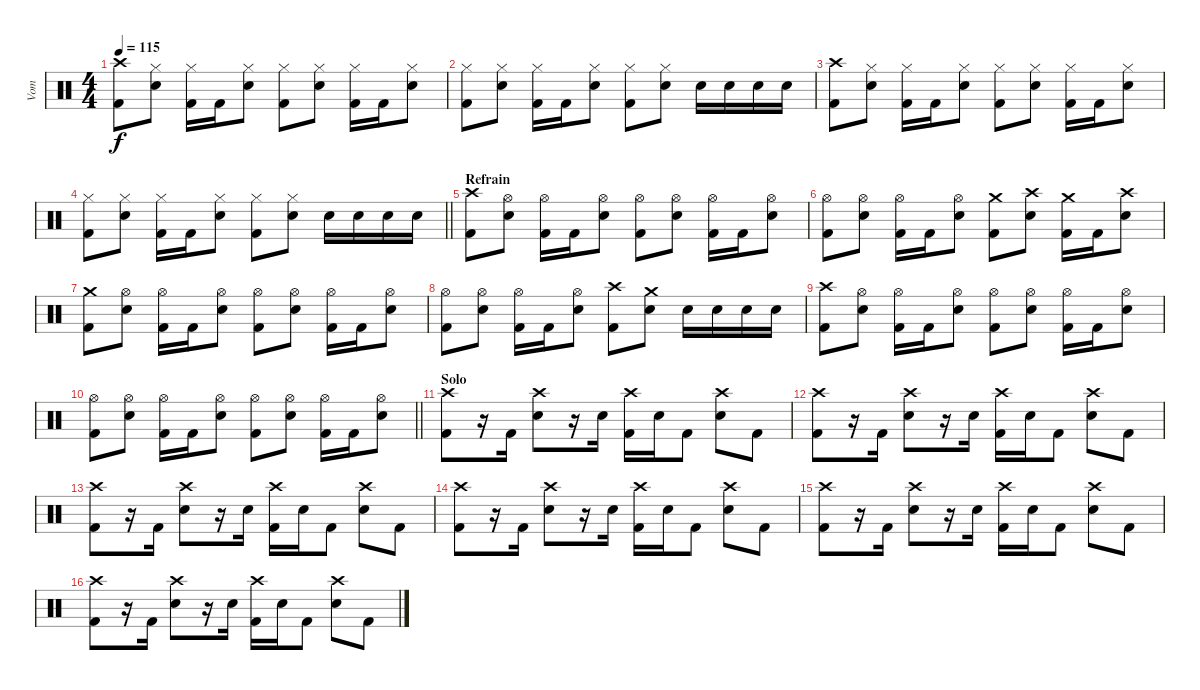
\track ("Vom" "Vom") {instrument percussion}
\staff {score}
\articulation defaults
\ts (4 4)
\tempo 115
\clef neutral
\ks c
("Crash high (hit)" "Kick (hit) 2").8{dy f} ("Hi-Hat (closed)" "Snare (hit) 2").8 ("Hi-Hat (closed)" "Kick (hit) 2").16 "Kick (hit) 2".16 ("Hi-Hat (closed)" "Snare (hit) 2").8 ("Hi-Hat (closed)" "Kick (hit) 2").8 ("Hi-Hat (closed)" "Snare (hit) 2").8 ("Hi-Hat (closed)" "Kick (hit) 2").16 "Kick (hit) 2".16 ("Hi-Hat (closed)" "Snare (hit) 2").8 |
("Hi-Hat (closed)" "Kick (hit) 2").8 ("Hi-Hat (closed)" "Snare (hit) 2").8 ("Hi-Hat (closed)" "Kick (hit) 2").16 "Kick (hit) 2".16 ("Hi-Hat (closed)" "Snare (hit) 2").8 ("Hi-Hat (closed)" "Kick (hit) 2").8 ("Hi-Hat (closed)" "Snare (hit) 2").8 "Snare (hit) 2".16 "Snare (hit) 2".16 "Snare (hit) 2".16 "Snare (hit) 2".16 |
("Crash high (hit)" "Kick (hit) 2").8 ("Hi-Hat (closed)" "Snare (hit) 2").8 ("Hi-Hat (closed)" "Kick (hit) 2").16 "Kick (hit) 2".16 ("Hi-Hat (closed)" "Snare (hit) 2").8 ("Hi-Hat (closed)" "Kick (hit) 2").8 ("Hi-Hat (closed)" "Snare (hit) 2").8 ("Hi-Hat (closed)" "Kick (hit) 2").16 "Kick (hit) 2".16 ("Hi-Hat (closed)" "Snare (hit) 2").8 |
\barLineRight lightlight
("Hi-Hat (closed)" "Kick (hit) 2").8 ("Hi-Hat (closed)" "Snare (hit) 2").8 ("Hi-Hat (closed)" "Kick (hit) 2").16 "Kick (hit) 2".16 ("Hi-Hat (closed)" "Snare (hit) 2").8 ("Hi-Hat (closed)" "Kick (hit) 2").8 ("Hi-Hat (closed)" "Snare (hit) 2").8 "Snare (hit) 2".16 "Snare (hit) 2".16 "Snare (hit) 2".16 "Snare (hit) 2".16 |
\section ("" "Refrain")
("Crash high (hit)" "Kick (hit) 2").8 ("Hi-Hat (open)" "Snare (hit) 2").8 ("Hi-Hat (open)" "Kick (hit) 2").16 "Kick (hit) 2".16 ("Hi-Hat (open)" "Snare (hit) 2").8 ("Hi-Hat (open)" "Kick (hit) 2").8 ("Hi-Hat (open)" "Snare (hit) 2").8 ("Hi-Hat (open)" "Kick (hit) 2").16 "Kick (hit) 2".16 ("Hi-Hat (open)" "Snare (hit) 2").8 |
("Hi-Hat (open)" "Kick (hit) 2").8 ("Hi-Hat (open)" "Snare (hit) 2").8 ("Hi-Hat (open)" "Kick (hit) 2").16 "Kick (hit) 2".16 ("Hi-Hat (open)" "Snare (hit) 2").8 ("Crash medium (hit)" "Kick (hit) 2").8 ("Crash high (hit)" "Snare (hit) 2").8 ("Crash medium (hit)" "Kick (hit) 2").16 "Kick (hit) 2".16 ("Crash high (hit)" "Snare (hit) 2").8 |
("Crash medium (hit)" "Kick (hit) 2").8 ("Hi-Hat (open)" "Snare (hit) 2").8 ("Hi-Hat (open)" "Kick (hit) 2").16 "Kick (hit) 2".16 ("Hi-Hat (open)" "Snare (hit) 2").8 ("Hi-Hat (open)" "Kick (hit) 2").8 ("Hi-Hat (open)" "Snare (hit) 2").8 ("Hi-Hat (open)" "Kick (hit) 2").16 "Kick (hit) 2".16 ("Hi-Hat (open)" "Snare (hit) 2").8 |
("Hi-Hat (open)" "Kick (hit) 2").8 ("Hi-Hat (open)" "Snare (hit) 2").8 ("Hi-Hat (open)" "Kick (hit) 2").16 "Kick (hit) 2".16 ("Hi-Hat (open)" "Snare (hit) 2").8 ("Crash high (hit)" "Kick (hit) 2").8 ("Crash medium (hit)" "Snare (hit) 2").8 "Snare (hit) 2".16 "Snare (hit) 2".16 "Snare (hit) 2".16 "Snare (hit) 2".16 |
("Crash high (hit)" "Kick (hit) 2").8 ("Hi-Hat (open)" "Snare (hit) 2").8 ("Hi-Hat (open)" "Kick (hit) 2").16 "Kick (hit) 2".16 ("Hi-Hat (open)" "Snare (hit) 2").8 ("Hi-Hat (open)" "Kick (hit) 2").8 ("Hi-Hat (open)" "Snare (hit) 2").8 ("Hi-Hat (open)" "Kick (hit) 2").16 "Kick (hit) 2".16 ("Hi-Hat (open)" "Snare (hit) 2").8 |
\barLineRight lightlight
("Hi-Hat (open)" "Kick (hit) 2").8 ("Hi-Hat (open)" "Snare (hit) 2").8 ("Hi-Hat (open)" "Kick (hit) 2").16 "Kick (hit) 2".16 ("Hi-Hat (open)" "Snare (hit) 2").8 ("Hi-Hat (open)" "Kick (hit) 2").8 ("Hi-Hat (open)" "Snare (hit) 2").8 ("Hi-Hat (open)" "Kick (hit) 2").16 "Kick (hit) 2".16 ("Hi-Hat (open)" "Snare (hit) 2").8 |
\section ("" "Solo")
("Crash high (hit)" "Kick (hit) 2").8 r.16 "Kick (hit) 2".16 ("Crash high (hit)" "Snare (hit) 2").8 r.16 "Snare (hit) 2".16 ("Crash high (hit)" "Kick (hit) 2").16 "Snare (hit) 2".16 "Kick (hit) 2".8 ("Crash high (hit)" "Snare (hit) 2").8 "Kick (hit) 2".8 |
("Crash high (hit)" "Kick (hit) 2").8 r.16 "Kick (hit) 2".16 ("Crash high (hit)" "Snare (hit) 2").8 r.16 "Snare (hit) 2".16 ("Crash high (hit)" "Kick (hit) 2").16 "Snare (hit) 2".16 "Kick (hit) 2".8 ("Crash high (hit)" "Snare (hit) 2").8 "Kick (hit) 2".8 |
("Crash high (hit)" "Kick (hit) 2").8 r.16 "Kick (hit) 2".16 ("Crash high (hit)" "Snare (hit) 2").8 r.16 "Snare (hit) 2".16 ("Crash high (hit)" "Kick (hit) 2").16 "Snare (hit) 2".16 "Kick (hit) 2".8 ("Crash high (hit)" "Snare (hit) 2").8 "Kick (hit) 2".8 |
("Crash high (hit)" "Kick (hit) 2").8 r.16 "Kick (hit) 2".16 ("Crash high (hit)" "Snare (hit) 2").8 r.16 "Snare (hit) 2".16 ("Crash high (hit)" "Kick (hit) 2").16 "Snare (hit) 2".16 "Kick (hit) 2".8 ("Crash high (hit)" "Snare (hit) 2").8 "Kick (hit) 2".8 |
("Crash high (hit)" "Kick (hit) 2").8 r.16 "Kick (hit) 2".16 ("Crash high (hit)" "Snare (hit) 2").8 r.16 "Snare (hit) 2".16 ("Crash high (hit)" "Kick (hit) 2").16 "Snare (hit) 2".16 "Kick (hit) 2".8 ("Crash high (hit)" "Snare (hit) 2").8 "Kick (hit) 2".8 |
("Crash high (hit)" "Kick (hit) 2").8 r.16 "Kick (hit) 2".16 ("Crash high (hit)" "Snare (hit) 2").8 r.16 "Snare (hit) 2".16 ("Crash high (hit)" "Kick (hit) 2").16 "Snare (hit) 2".16 "Kick (hit) 2".8 ("Crash high (hit)" "Snare (hit) 2").8 "Kick (hit) 2".8
